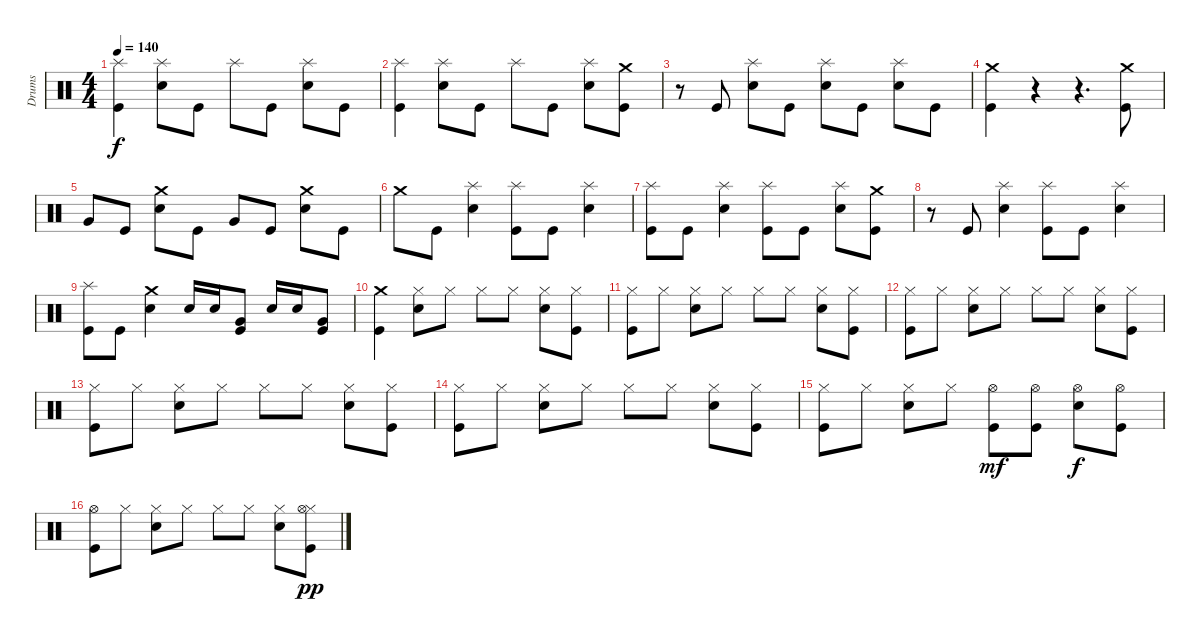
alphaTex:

\track ("Drums" "Drums") {instrument percussion}
\staff {score}
\articulation defaults
\ts (4 4)
\tempo 140
\clef neutral
\ks c
("Splash (hit)" "Kick (hit)").4{dy f} ("Splash (hit)" "Electric Snare (hit)").8 "Kick (hit)".8 "Splash (hit)".8 "Kick (hit)".8 ("Splash (hit)" "Electric Snare (hit)").8 "Kick (hit)".8 |
("Splash (hit)" "Kick (hit)").4 ("Splash (hit)" "Electric Snare (hit)").8 "Kick (hit)".8 "Splash (hit)".8 "Kick (hit)".8 ("Splash (hit)" "Electric Snare (hit)").8 ("Crash medium (hit)" "Kick (hit)").8 |
r.8 "Kick (hit)".8 ("Splash (hit)" "Electric Snare (hit)").8 "Kick (hit)".8 ("Splash (hit)" "Electric Snare (hit)").8 "Kick (hit)".8 ("Splash (hit)" "Electric Snare (hit)").8 "Kick (hit)".8 |
("Crash medium (hit)" "Kick (hit)").4 r.4 r.4{d} ("Crash medium (hit)" "Kick (hit)").8 |
"Very Low Tom (hit)".8 "Kick (hit)".8 ("Crash medium (hit)" "Electric Snare (hit)").8 "Kick (hit)".8 "Very Low Tom (hit)".8 "Kick (hit)".8 ("Crash medium (hit)" "Electric Snare (hit)").8 "Kick (hit)".8 |
"Crash medium (hit)".8 "Kick (hit)".8 ("Splash (hit)" "Electric Snare (hit)").4 ("Splash (hit)" "Kick (hit)").8 "Kick (hit)".8 ("Splash (hit)" "Electric Snare (hit)").4 |
("Splash (hit)" "Kick (hit)").8 "Kick (hit)".8 ("Splash (hit)" "Electric Snare (hit)").4 ("Splash (hit)" "Kick (hit)").8 "Kick (hit)".8 ("Splash (hit)" "Electric Snare (hit)").8 ("Crash medium (hit)" "Kick (hit)").8 |
r.8 "Kick (hit)".8 ("Splash (hit)" "Electric Snare (hit)").4 ("Splash (hit)" "Kick (hit)").8 "Kick (hit)".8 ("Splash (hit)" "Electric Snare (hit)").4 |
("Splash (hit)" "Kick (hit)").8 "Kick (hit)".8 ("Crash medium (hit)" "Electric Snare (hit)").4 "Electric Snare (hit)".16 "Electric Snare (hit)".16 ("Very Low Tom (hit)" "Kick (hit)").8 "Electric Snare (hit)".16 "Electric Snare (hit)".16 ("Very Low Tom (hit)" "Kick (hit)").8 |
("Crash medium (hit)" "Kick (hit)").4 ("Hi-Hat (closed)" "Electric Snare (hit)").8 "Hi-Hat (closed)".8 "Hi-Hat (closed)".8 "Hi-Hat (closed)".8 ("Hi-Hat (closed)" "Electric Snare (hit)").8 ("Hi-Hat (closed)" "Kick (hit)").8 |
("Hi-Hat (closed)" "Kick (hit)").8 "Hi-Hat (closed)".8 ("Hi-Hat (closed)" "Electric Snare (hit)").8 "Hi-Hat (closed)".8 "Hi-Hat (closed)".8 "Hi-Hat (closed)".8 ("Hi-Hat (closed)" "Electric Snare (hit)").8 ("Hi-Hat (closed)" "Kick (hit)").8 |
("Hi-Hat (closed)" "Kick (hit)").8 "Hi-Hat (closed)".8 ("Hi-Hat (closed)" "Electric Snare (hit)").8 "Hi-Hat (closed)".8 "Hi-Hat (closed)".8 "Hi-Hat (closed)".8 ("Hi-Hat (closed)" "Electric Snare (hit)").8 ("Hi-Hat (closed)" "Kick (hit)").8 |
("Hi-Hat (closed)" "Kick (hit)").8 "Hi-Hat (closed)".8 ("Hi-Hat (closed)" "Electric Snare (hit)").8 "Hi-Hat (closed)".8 "Hi-Hat (closed)".8 "Hi-Hat (closed)".8 ("Hi-Hat (closed)" "Electric Snare (hit)").8 ("Hi-Hat (closed)" "Kick (hit)").8 |
("Hi-Hat (closed)" "Kick (hit)").8 "Hi-Hat (closed)".8 ("Hi-Hat (closed)" "Electric Snare (hit)").8 "Hi-Hat (closed)".8 "Hi-Hat (closed)".8 "Hi-Hat (closed)".8 ("Hi-Hat (closed)" "Electric Snare (hit)").8 ("Hi-Hat (closed)" "Kick (hit)").8 |
("Hi-Hat (closed)" "Kick (hit)").8 "Hi-Hat (closed)".8 ("Hi-Hat (closed)" "Electric Snare (hit)").8 "Hi-Hat (closed)".8 ("Hi-Hat (open)" "Kick (hit)").8{dy mf} ("Hi-Hat (open)" "Kick (hit)").8 ("Hi-Hat (open)" "Electric Snare (hit)").8{dy f} ("Hi-Hat (open)" "Kick (hit)").8 |
("Hi-Hat (open)" "Kick (hit)").8 "Hi-Hat (closed)".8 ("Hi-Hat (closed)" "Electric Snare (hit)").8 "Hi-Hat (closed)".8 "Hi-Hat (closed)".8 "Hi-Hat (closed)".8 ("Hi-Hat (closed)" "Electric Snare (hit)").8 ("Hi-Hat (closed)" "Hi-Hat (open)" "Kick (hit)").8{dy pp}
